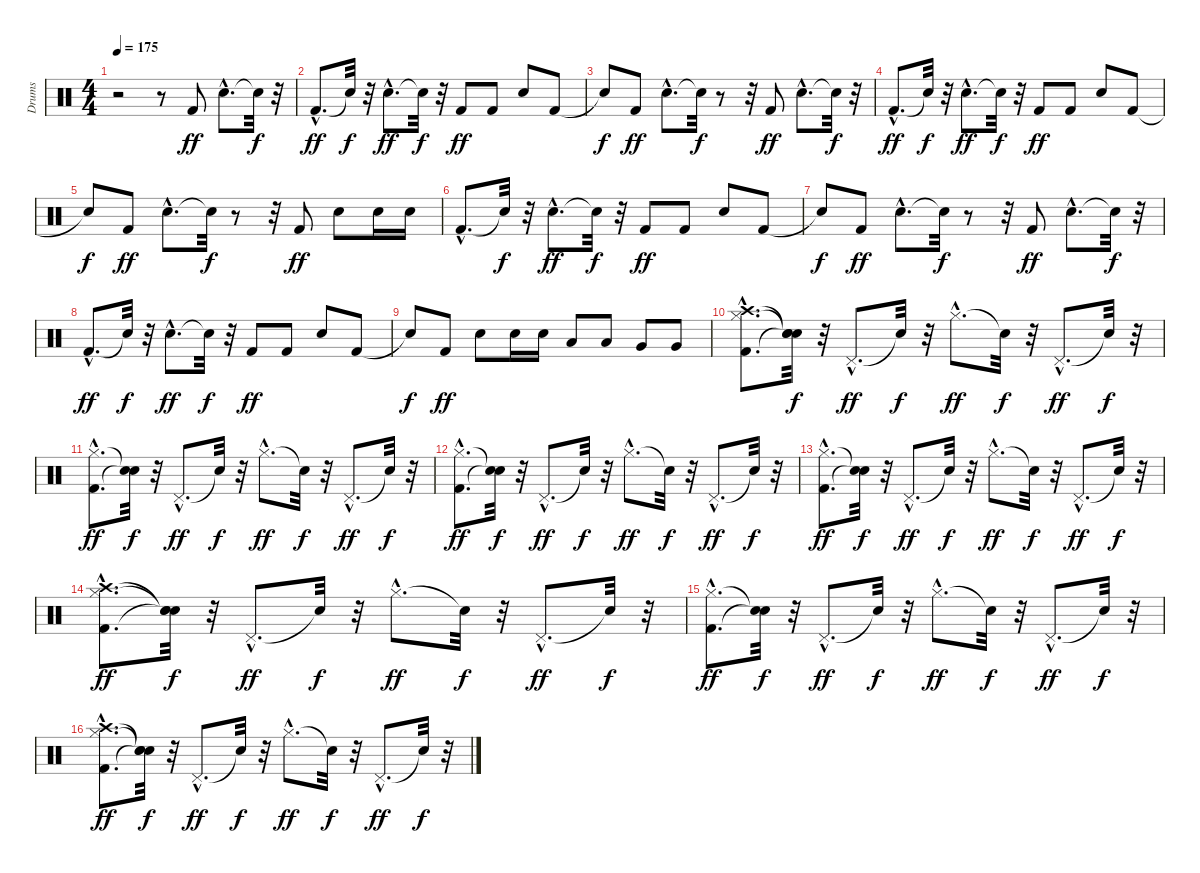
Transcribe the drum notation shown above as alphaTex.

\track ("Drums" "Drums") {instrument percussion}
\staff {score}
\articulation defaults
\ts (4 4)
\tempo 175
\clef neutral
\ks c
r.2{dy ff} r.8 "Kick (hit) 2".8 "Electric Snare (hit)"{hac}.8{d} "Snare (hit)"{t}.32{dy f} r.32 |
"Kick (hit) 2"{hac}.8{d dy ff} "Snare (hit)"{t}.32{dy f} r.32 "Electric Snare (hit)"{hac}.8{d dy ff} "Snare (hit)"{t}.32{dy f} r.32 "Kick (hit) 2".8{dy ff} "Kick (hit) 2".8 "Electric Snare (hit)".8 "Kick (hit) 2".8 |
"Snare (hit)"{t}.8{dy f} "Kick (hit) 2".8{dy ff} "Electric Snare (hit)"{hac}.8{d} "Snare (hit)"{t}.32{dy f} r.8 r.32 "Kick (hit) 2".8{dy ff} "Electric Snare (hit)"{hac}.8{d} "Snare (hit)"{t}.32{dy f} r.32 |
"Kick (hit) 2"{hac}.8{d dy ff} "Snare (hit)"{t}.32{dy f} r.32 "Electric Snare (hit)"{hac}.8{d dy ff} "Snare (hit)"{t}.32{dy f} r.32 "Kick (hit) 2".8{dy ff} "Kick (hit) 2".8 "Electric Snare (hit)".8 "Kick (hit) 2".8 |
"Snare (hit)"{t}.8{dy f} "Kick (hit) 2".8{dy ff} "Electric Snare (hit)"{hac}.8{d} "Snare (hit)"{t}.32{dy f} r.8 r.32 "Kick (hit) 2".8{dy ff} "Electric Snare (hit)".8 "Electric Snare (hit)".16 "Electric Snare (hit)".16 |
"Kick (hit) 2"{hac}.8{d} "Snare (hit)"{t}.32{dy f} r.32 "Electric Snare (hit)"{hac}.8{d dy ff} "Snare (hit)"{t}.32{dy f} r.32 "Kick (hit) 2".8{dy ff} "Kick (hit) 2".8 "Electric Snare (hit)".8 "Kick (hit) 2".8 |
"Snare (hit)"{t}.8{dy f} "Kick (hit) 2".8{dy ff} "Electric Snare (hit)"{hac}.8{d} "Snare (hit)"{t}.32{dy f} r.8 r.32 "Kick (hit) 2".8{dy ff} "Electric Snare (hit)"{hac}.8{d} "Snare (hit)"{t}.32{dy f} r.32 |
"Kick (hit) 2"{hac}.8{d dy ff} "Snare (hit)"{t}.32{dy f} r.32 "Electric Snare (hit)"{hac}.8{d dy ff} "Snare (hit)"{t}.32{dy f} r.32 "Kick (hit) 2".8{dy ff} "Kick (hit) 2".8 "Electric Snare (hit)".8 "Kick (hit) 2".8 |
"Snare (hit)"{t}.8{dy f} "Kick (hit) 2".8{dy ff} "Electric Snare (hit)".8 "Electric Snare (hit)".16 "Electric Snare (hit)".16 "Low Tom (hit)".8 "Low Tom (hit)".8 "Very Low Tom (hit)".8 "Very Low Tom (hit)".8 |
("Kick (hit) 2"{hac} "Hi-Hat (closed)"{hac} "Crash high (hit)"{hac}).8{d} ("Snare (hit)"{t} "Snare (hit)"{t} "Snare (hit)"{t}).32{dy f} r.32 "Pedal Hi-Hat (hit)"{hac}.8{d dy ff} "Snare (hit)"{t}.32{dy f} r.32 "Hi-Hat (closed)"{hac}.8{d dy ff} "Snare (hit)"{t}.32{dy f} r.32 "Pedal Hi-Hat (hit)"{hac}.8{d dy ff} "Snare (hit)"{t}.32{dy f} r.32 |
("Kick (hit) 2"{hac} "Hi-Hat (closed)"{hac}).8{d dy ff} ("Snare (hit)"{t} "Snare (hit)"{t}).32{dy f} r.32 "Pedal Hi-Hat (hit)"{hac}.8{d dy ff} "Snare (hit)"{t}.32{dy f} r.32 "Hi-Hat (closed)"{hac}.8{d dy ff} "Snare (hit)"{t}.32{dy f} r.32 "Pedal Hi-Hat (hit)"{hac}.8{d dy ff} "Snare (hit)"{t}.32{dy f} r.32 |
("Kick (hit) 2"{hac} "Hi-Hat (closed)"{hac}).8{d dy ff} ("Snare (hit)"{t} "Snare (hit)"{t}).32{dy f} r.32 "Pedal Hi-Hat (hit)"{hac}.8{d dy ff} "Snare (hit)"{t}.32{dy f} r.32 "Hi-Hat (closed)"{hac}.8{d dy ff} "Snare (hit)"{t}.32{dy f} r.32 "Pedal Hi-Hat (hit)"{hac}.8{d dy ff} "Snare (hit)"{t}.32{dy f} r.32 |
("Kick (hit) 2"{hac} "Hi-Hat (closed)"{hac}).8{d dy ff} ("Snare (hit)"{t} "Snare (hit)"{t}).32{dy f} r.32 "Pedal Hi-Hat (hit)"{hac}.8{d dy ff} "Snare (hit)"{t}.32{dy f} r.32 "Hi-Hat (closed)"{hac}.8{d dy ff} "Snare (hit)"{t}.32{dy f} r.32 "Pedal Hi-Hat (hit)"{hac}.8{d dy ff} "Snare (hit)"{t}.32{dy f} r.32 |
("Kick (hit) 2"{hac} "Hi-Hat (closed)"{hac} "Crash high (hit)"{hac}).8{d dy ff} ("Snare (hit)"{t} "Snare (hit)"{t} "Snare (hit)"{t}).32{dy f} r.32 "Pedal Hi-Hat (hit)"{hac}.8{d dy ff} "Snare (hit)"{t}.32{dy f} r.32 "Hi-Hat (closed)"{hac}.8{d dy ff} "Snare (hit)"{t}.32{dy f} r.32 "Pedal Hi-Hat (hit)"{hac}.8{d dy ff} "Snare (hit)"{t}.32{dy f} r.32 |
("Kick (hit) 2"{hac} "Hi-Hat (closed)"{hac}).8{d dy ff} ("Snare (hit)"{t} "Snare (hit)"{t}).32{dy f} r.32 "Pedal Hi-Hat (hit)"{hac}.8{d dy ff} "Snare (hit)"{t}.32{dy f} r.32 "Hi-Hat (closed)"{hac}.8{d dy ff} "Snare (hit)"{t}.32{dy f} r.32 "Pedal Hi-Hat (hit)"{hac}.8{d dy ff} "Snare (hit)"{t}.32{dy f} r.32 |
("Kick (hit) 2"{hac} "Hi-Hat (closed)"{hac} "Crash high (hit)"{hac}).8{d dy ff} ("Snare (hit)"{t} "Snare (hit)"{t} "Snare (hit)"{t}).32{dy f} r.32 "Pedal Hi-Hat (hit)"{hac}.8{d dy ff} "Snare (hit)"{t}.32{dy f} r.32 "Hi-Hat (closed)"{hac}.8{d dy ff} "Snare (hit)"{t}.32{dy f} r.32 "Pedal Hi-Hat (hit)"{hac}.8{d dy ff} "Snare (hit)"{t}.32{dy f} r.32
